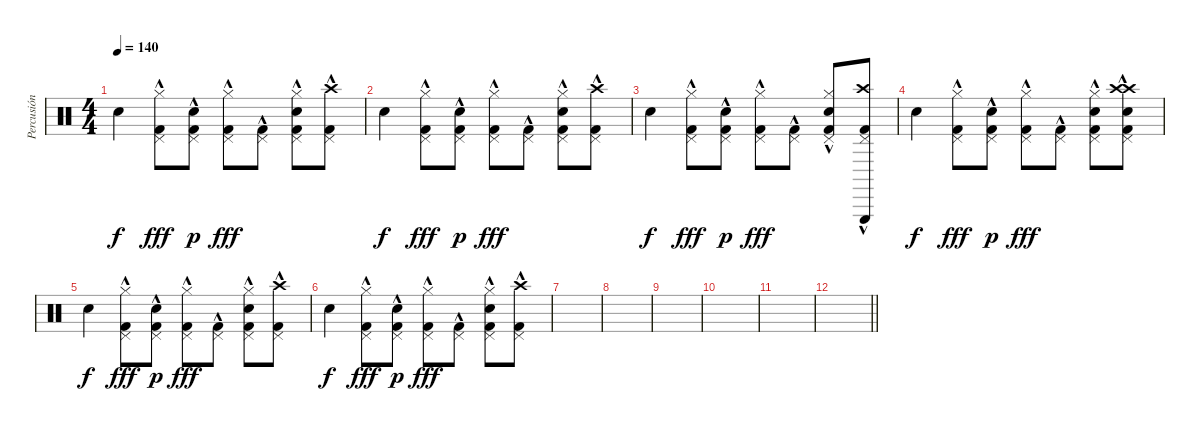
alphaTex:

\track ("Percusión" "Percusión") {instrument percussion}
\staff {score}
\articulation defaults
\ts (4 4)
\tempo 140
\clef neutral
\ks c "Snare (hit) 2".4{dy f}
("Kick (hit) 2"{hac} "Pedal Hi-Hat (hit)"{hac} "Hi-Hat (closed)"{hac}).8{dy fff} ("Kick (hit) 2"{hac} "Pedal Hi-Hat (hit)"{hac} "Electric Snare (hit)").8{dy p} ("Kick (hit) 2"{hac} "Pedal Hi-Hat (hit)"{hac} "Hi-Hat (closed)"{hac}).8{dy fff} ("Kick (hit) 2"{hac} "Pedal Hi-Hat (hit)"{hac}).8 ("Kick (hit) 2"{hac} "Pedal Hi-Hat (hit)"{hac} "Electric Snare (hit)" "Hi-Hat (closed)"{hac}).8 ("Kick (hit) 2"{hac} "Pedal Hi-Hat (hit)"{hac} "Crash high (hit)").8 |
"Snare (hit) 2".4{dy f} ("Kick (hit) 2"{hac} "Pedal Hi-Hat (hit)"{hac} "Hi-Hat (closed)"{hac}).8{dy fff} ("Kick (hit) 2"{hac} "Pedal Hi-Hat (hit)"{hac} "Electric Snare (hit)").8{dy p} ("Kick (hit) 2"{hac} "Pedal Hi-Hat (hit)"{hac} "Hi-Hat (closed)"{hac}).8{dy fff} ("Kick (hit) 2"{hac} "Pedal Hi-Hat (hit)"{hac}).8 ("Kick (hit) 2"{hac} "Pedal Hi-Hat (hit)"{hac} "Electric Snare (hit)" "Hi-Hat (closed)"{hac}).8 ("Kick (hit) 2"{hac} "Pedal Hi-Hat (hit)"{hac} "Crash high (hit)").8 |
"Snare (hit) 2".4{dy f} ("Kick (hit) 2"{hac} "Pedal Hi-Hat (hit)"{hac} "Hi-Hat (closed)"{hac}).8{dy fff} ("Kick (hit) 2"{hac} "Pedal Hi-Hat (hit)"{hac} "Electric Snare (hit)").8{dy p} ("Kick (hit) 2"{hac} "Pedal Hi-Hat (hit)"{hac} "Hi-Hat (closed)"{hac}).8{dy fff} ("Kick (hit) 2"{hac} "Pedal Hi-Hat (hit)"{hac}).8 ("Kick (hit) 2"{hac} "Pedal Hi-Hat (hit)"{hac} "Electric Snare (hit)" "Hi-Hat (closed)"{hac}).8 ("Kick (hit) 2"{hac} "Pedal Hi-Hat (hit)"{hac} "Crash high (hit)" "Triangle (hit)"{hac}).8 |
"Snare (hit) 2".4{dy f} ("Kick (hit) 2"{hac} "Pedal Hi-Hat (hit)"{hac} "Hi-Hat (closed)"{hac}).8{dy fff} ("Kick (hit) 2"{hac} "Pedal Hi-Hat (hit)"{hac} "Electric Snare (hit)").8{dy p} ("Kick (hit) 2"{hac} "Pedal Hi-Hat (hit)"{hac} "Hi-Hat (closed)"{hac}).8{dy fff} ("Kick (hit) 2"{hac} "Pedal Hi-Hat (hit)"{hac}).8 ("Kick (hit) 2"{hac} "Pedal Hi-Hat (hit)"{hac} "Snare (hit) 2" "Hi-Hat (closed)"{hac}).8 ("Kick (hit) 2"{hac} "Pedal Hi-Hat (hit)"{hac} "Crash high (hit)" "Crash high (hit)"{hac} "Electric Snare (hit)"{hac}).8 |
"Snare (hit) 2".4{dy f} ("Kick (hit) 2"{hac} "Pedal Hi-Hat (hit)"{hac} "Hi-Hat (closed)"{hac}).8{dy fff} ("Kick (hit) 2"{hac} "Pedal Hi-Hat (hit)"{hac} "Electric Snare (hit)").8{dy p} ("Kick (hit) 2"{hac} "Pedal Hi-Hat (hit)"{hac} "Hi-Hat (closed)"{hac}).8{dy fff} ("Kick (hit) 2"{hac} "Pedal Hi-Hat (hit)"{hac}).8 ("Kick (hit) 2"{hac} "Pedal Hi-Hat (hit)"{hac} "Electric Snare (hit)" "Hi-Hat (closed)"{hac}).8 ("Kick (hit) 2"{hac} "Pedal Hi-Hat (hit)"{hac} "Crash high (hit)").8 |
"Snare (hit) 2".4{dy f} ("Kick (hit) 2"{hac} "Pedal Hi-Hat (hit)"{hac} "Hi-Hat (closed)"{hac}).8{dy fff} ("Kick (hit) 2"{hac} "Pedal Hi-Hat (hit)"{hac} "Electric Snare (hit)").8{dy p} ("Kick (hit) 2"{hac} "Pedal Hi-Hat (hit)"{hac} "Hi-Hat (closed)"{hac}).8{dy fff} ("Kick (hit) 2"{hac} "Pedal Hi-Hat (hit)"{hac}).8 ("Kick (hit) 2"{hac} "Pedal Hi-Hat (hit)"{hac} "Electric Snare (hit)" "Hi-Hat (closed)"{hac}).8 ("Kick (hit) 2"{hac} "Pedal Hi-Hat (hit)"{hac} "Crash high (hit)").8 |
|
|
|
|
|
\barLineRight lightlight
